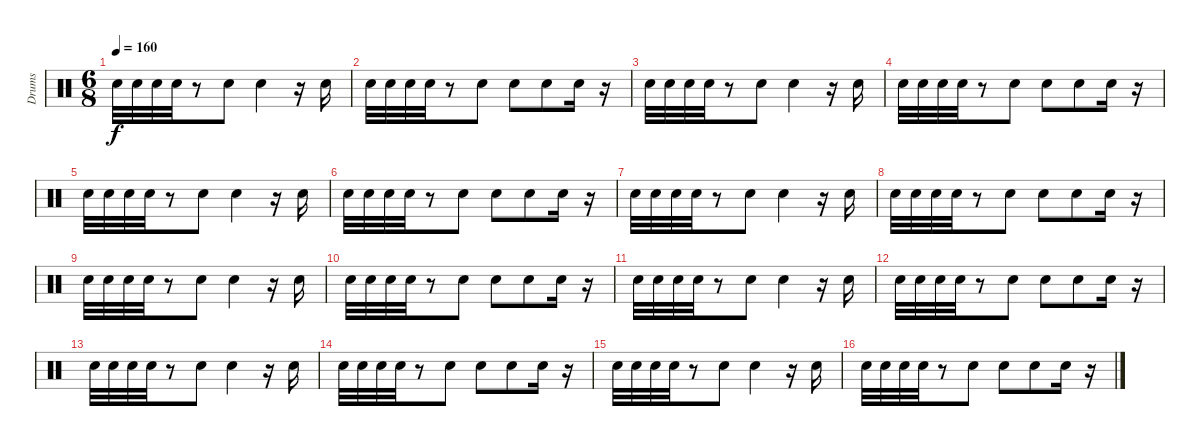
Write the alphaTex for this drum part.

\track ("Drums" "Drums") {instrument percussion}
\staff {score}
\articulation defaults
\ts (6 8)
\tempo 160
\clef neutral
\ks c "Snare (hit) 2".32{dy f} "Snare (hit) 2".32 "Snare (hit) 2".32 "Snare (hit) 2".32
r.8 "Snare (hit) 2".8 "Snare (hit) 2".4 r.16 "Snare (hit) 2".16 |
"Snare (hit) 2".32 "Snare (hit) 2".32 "Snare (hit) 2".32 "Snare (hit) 2".32 r.8 "Snare (hit) 2".8 "Snare (hit) 2".8 "Snare (hit) 2".8 "Snare (hit) 2".16 r.16 |
"Snare (hit) 2".32 "Snare (hit) 2".32 "Snare (hit) 2".32 "Snare (hit) 2".32 r.8 "Snare (hit) 2".8 "Snare (hit) 2".4 r.16 "Snare (hit) 2".16 |
"Snare (hit) 2".32 "Snare (hit) 2".32 "Snare (hit) 2".32 "Snare (hit) 2".32 r.8 "Snare (hit) 2".8 "Snare (hit) 2".8 "Snare (hit) 2".8 "Snare (hit) 2".16 r.16 |
"Snare (hit) 2".32 "Snare (hit) 2".32 "Snare (hit) 2".32 "Snare (hit) 2".32 r.8 "Snare (hit) 2".8 "Snare (hit) 2".4 r.16 "Snare (hit) 2".16 |
"Snare (hit) 2".32 "Snare (hit) 2".32 "Snare (hit) 2".32 "Snare (hit) 2".32 r.8 "Snare (hit) 2".8 "Snare (hit) 2".8 "Snare (hit) 2".8 "Snare (hit) 2".16 r.16 |
"Snare (hit) 2".32 "Snare (hit) 2".32 "Snare (hit) 2".32 "Snare (hit) 2".32 r.8 "Snare (hit) 2".8 "Snare (hit) 2".4 r.16 "Snare (hit) 2".16 |
"Snare (hit) 2".32 "Snare (hit) 2".32 "Snare (hit) 2".32 "Snare (hit) 2".32 r.8 "Snare (hit) 2".8 "Snare (hit) 2".8 "Snare (hit) 2".8 "Snare (hit) 2".16 r.16 |
"Snare (hit) 2".32 "Snare (hit) 2".32 "Snare (hit) 2".32 "Snare (hit) 2".32 r.8 "Snare (hit) 2".8 "Snare (hit) 2".4 r.16 "Snare (hit) 2".16 |
"Snare (hit) 2".32 "Snare (hit) 2".32 "Snare (hit) 2".32 "Snare (hit) 2".32 r.8 "Snare (hit) 2".8 "Snare (hit) 2".8 "Snare (hit) 2".8 "Snare (hit) 2".16 r.16 |
"Snare (hit) 2".32 "Snare (hit) 2".32 "Snare (hit) 2".32 "Snare (hit) 2".32 r.8 "Snare (hit) 2".8 "Snare (hit) 2".4 r.16 "Snare (hit) 2".16 |
"Snare (hit) 2".32 "Snare (hit) 2".32 "Snare (hit) 2".32 "Snare (hit) 2".32 r.8 "Snare (hit) 2".8 "Snare (hit) 2".8 "Snare (hit) 2".8 "Snare (hit) 2".16 r.16 |
"Snare (hit) 2".32 "Snare (hit) 2".32 "Snare (hit) 2".32 "Snare (hit) 2".32 r.8 "Snare (hit) 2".8 "Snare (hit) 2".4 r.16 "Snare (hit) 2".16 |
"Snare (hit) 2".32 "Snare (hit) 2".32 "Snare (hit) 2".32 "Snare (hit) 2".32 r.8 "Snare (hit) 2".8 "Snare (hit) 2".8 "Snare (hit) 2".8 "Snare (hit) 2".16 r.16 |
"Snare (hit) 2".32 "Snare (hit) 2".32 "Snare (hit) 2".32 "Snare (hit) 2".32 r.8 "Snare (hit) 2".8 "Snare (hit) 2".4 r.16 "Snare (hit) 2".16 |
"Snare (hit) 2".32 "Snare (hit) 2".32 "Snare (hit) 2".32 "Snare (hit) 2".32 r.8 "Snare (hit) 2".8 "Snare (hit) 2".8 "Snare (hit) 2".8 "Snare (hit) 2".16 r.16
